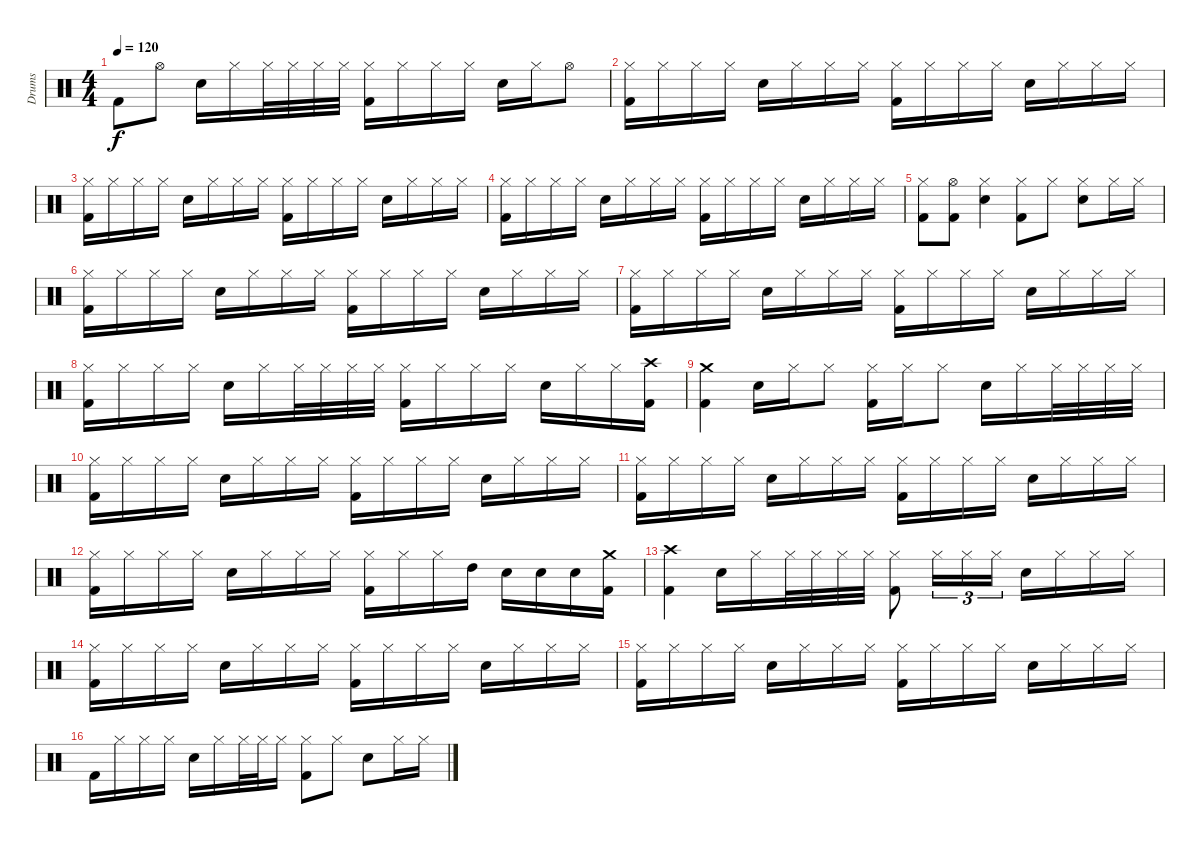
\track ("Drums" "Drums") {instrument percussion}
\staff {score}
\articulation defaults
\ts (4 4)
\tempo 120
\clef neutral
\ks c "Kick (hit) 2".8{dy f} "Hi-Hat (open)".8 "Electric Snare (hit)".16 "Hi-Hat (closed)".16 "Hi-Hat (closed)".32 "Hi-Hat (closed)".32 "Hi-Hat (closed)".32 "Hi-Hat (closed)".32
("Hi-Hat (closed)" "Kick (hit) 2").16 "Hi-Hat (closed)".16 "Hi-Hat (closed)".16 "Hi-Hat (closed)".16 "Electric Snare (hit)".16 "Hi-Hat (closed)".16 "Hi-Hat (open)".8 |
("Hi-Hat (closed)" "Kick (hit) 2").16 "Hi-Hat (closed)".16 "Hi-Hat (closed)".16 "Hi-Hat (closed)".16 "Electric Snare (hit)".16 "Hi-Hat (closed)".16 "Hi-Hat (closed)".16 "Hi-Hat (closed)".16 ("Hi-Hat (closed)" "Kick (hit) 2").16 "Hi-Hat (closed)".16 "Hi-Hat (closed)".16 "Hi-Hat (closed)".16 "Electric Snare (hit)".16 "Hi-Hat (closed)".16 "Hi-Hat (closed)".16 "Hi-Hat (closed)".16 |
("Hi-Hat (closed)" "Kick (hit) 2").16 "Hi-Hat (closed)".16 "Hi-Hat (closed)".16 "Hi-Hat (closed)".16 "Electric Snare (hit)".16 "Hi-Hat (closed)".16 "Hi-Hat (closed)".16 "Hi-Hat (closed)".16 ("Hi-Hat (closed)" "Kick (hit) 2").16 "Hi-Hat (closed)".16 "Hi-Hat (closed)".16 "Hi-Hat (closed)".16 "Electric Snare (hit)".16 "Hi-Hat (closed)".16 "Hi-Hat (closed)".16 "Hi-Hat (closed)".16 |
("Hi-Hat (closed)" "Kick (hit) 2").16 "Hi-Hat (closed)".16 "Hi-Hat (closed)".16 "Hi-Hat (closed)".16 "Electric Snare (hit)".16 "Hi-Hat (closed)".16 "Hi-Hat (closed)".16 "Hi-Hat (closed)".16 ("Hi-Hat (closed)" "Kick (hit) 2").16 "Hi-Hat (closed)".16 "Hi-Hat (closed)".16 "Hi-Hat (closed)".16 "Electric Snare (hit)".16 "Hi-Hat (closed)".16 "Hi-Hat (closed)".16 "Hi-Hat (closed)".16 |
("Hi-Hat (closed)" "Kick (hit) 2").8 ("Hi-Hat (open)" "Kick (hit) 2").8 ("Hi-Hat (closed)" "Electric Snare (hit)").4 ("Hi-Hat (closed)" "Kick (hit) 2").8 "Hi-Hat (closed)".8 ("Hi-Hat (closed)" "Electric Snare (hit)").8 "Hi-Hat (closed)".16 "Hi-Hat (closed)".16 |
("Hi-Hat (closed)" "Kick (hit) 2").16 "Hi-Hat (closed)".16 "Hi-Hat (closed)".16 "Hi-Hat (closed)".16 "Electric Snare (hit)".16 "Hi-Hat (closed)".16 "Hi-Hat (closed)".16 "Hi-Hat (closed)".16 ("Hi-Hat (closed)" "Kick (hit) 2").16 "Hi-Hat (closed)".16 "Hi-Hat (closed)".16 "Hi-Hat (closed)".16 "Electric Snare (hit)".16 "Hi-Hat (closed)".16 "Hi-Hat (closed)".16 "Hi-Hat (closed)".16 |
("Hi-Hat (closed)" "Kick (hit) 2").16 "Hi-Hat (closed)".16 "Hi-Hat (closed)".16 "Hi-Hat (closed)".16 "Electric Snare (hit)".16 "Hi-Hat (closed)".16 "Hi-Hat (closed)".16 "Hi-Hat (closed)".16 ("Hi-Hat (closed)" "Kick (hit) 2").16 "Hi-Hat (closed)".16 "Hi-Hat (closed)".16 "Hi-Hat (closed)".16 "Electric Snare (hit)".16 "Hi-Hat (closed)".16 "Hi-Hat (closed)".16 "Hi-Hat (closed)".16 |
("Hi-Hat (closed)" "Kick (hit) 2").16 "Hi-Hat (closed)".16 "Hi-Hat (closed)".16 "Hi-Hat (closed)".16 "Electric Snare (hit)".16 "Hi-Hat (closed)".16 "Hi-Hat (closed)".32 "Hi-Hat (closed)".32 "Hi-Hat (closed)".32 "Hi-Hat (closed)".32 ("Hi-Hat (closed)" "Kick (hit) 2").16 "Hi-Hat (closed)".16 "Hi-Hat (closed)".16 "Hi-Hat (closed)".16 "Electric Snare (hit)".16 "Hi-Hat (closed)".16 "Hi-Hat (closed)".16 ("Crash high (hit)" "Kick (hit) 2").16 |
("Crash medium (hit)" "Kick (hit) 2").4 "Electric Snare (hit)".16 "Hi-Hat (closed)".16 "Hi-Hat (closed)".8 ("Hi-Hat (closed)" "Kick (hit) 2").16 "Hi-Hat (closed)".16 "Hi-Hat (closed)".8 "Electric Snare (hit)".16 "Hi-Hat (closed)".16 "Hi-Hat (closed)".32 "Hi-Hat (closed)".32 "Hi-Hat (closed)".32 "Hi-Hat (closed)".32 |
("Hi-Hat (closed)" "Kick (hit) 2").16 "Hi-Hat (closed)".16 "Hi-Hat (closed)".16 "Hi-Hat (closed)".16 "Electric Snare (hit)".16 "Hi-Hat (closed)".16 "Hi-Hat (closed)".16 "Hi-Hat (closed)".16 ("Hi-Hat (closed)" "Kick (hit) 2").16 "Hi-Hat (closed)".16 "Hi-Hat (closed)".16 "Hi-Hat (closed)".16 "Electric Snare (hit)".16 "Hi-Hat (closed)".16 "Hi-Hat (closed)".16 "Hi-Hat (closed)".16 |
("Hi-Hat (closed)" "Kick (hit) 2").16 "Hi-Hat (closed)".16 "Hi-Hat (closed)".16 "Hi-Hat (closed)".16 "Electric Snare (hit)".16 "Hi-Hat (closed)".16 "Hi-Hat (closed)".16 "Hi-Hat (closed)".16 ("Hi-Hat (closed)" "Kick (hit) 2").16 "Hi-Hat (closed)".16 "Hi-Hat (closed)".16 "Hi-Hat (closed)".16 "Electric Snare (hit)".16 "Hi-Hat (closed)".16 "Hi-Hat (closed)".16 "Hi-Hat (closed)".16 |
("Hi-Hat (closed)" "Kick (hit) 2").16 "Hi-Hat (closed)".16 "Hi-Hat (closed)".16 "Hi-Hat (closed)".16 "Electric Snare (hit)".16 "Hi-Hat (closed)".16 "Hi-Hat (closed)".16 "Hi-Hat (closed)".16 ("Hi-Hat (closed)" "Kick (hit) 2").16 "Hi-Hat (closed)".16 "Hi-Hat (closed)".16 "High Tom (hit)".16 "Electric Snare (hit)".16 "Electric Snare (hit)".16 "Electric Snare (hit)".16 ("Crash medium (hit)" "Kick (hit) 2").16 |
("Crash high (hit)" "Kick (hit) 2").4 "Electric Snare (hit)".16 "Hi-Hat (closed)".16 "Hi-Hat (closed)".32 "Hi-Hat (closed)".32 "Hi-Hat (closed)".32 "Hi-Hat (closed)".32 ("Hi-Hat (closed)" "Kick (hit) 2").8 "Hi-Hat (closed)".16{tu (3 2)} "Hi-Hat (closed)".16{tu (3 2)} "Hi-Hat (closed)".16{tu (3 2)} "Electric Snare (hit)".16 "Hi-Hat (closed)".16 "Hi-Hat (closed)".16 "Hi-Hat (closed)".16 |
("Hi-Hat (closed)" "Kick (hit) 2").16 "Hi-Hat (closed)".16 "Hi-Hat (closed)".16 "Hi-Hat (closed)".16 "Electric Snare (hit)".16 "Hi-Hat (closed)".16 "Hi-Hat (closed)".16 "Hi-Hat (closed)".16 ("Hi-Hat (closed)" "Kick (hit) 2").16 "Hi-Hat (closed)".16 "Hi-Hat (closed)".16 "Hi-Hat (closed)".16 "Electric Snare (hit)".16 "Hi-Hat (closed)".16 "Hi-Hat (closed)".16 "Hi-Hat (closed)".16 |
("Hi-Hat (closed)" "Kick (hit) 2").16 "Hi-Hat (closed)".16 "Hi-Hat (closed)".16 "Hi-Hat (closed)".16 "Electric Snare (hit)".16 "Hi-Hat (closed)".16 "Hi-Hat (closed)".16 "Hi-Hat (closed)".16 ("Hi-Hat (closed)" "Kick (hit) 2").16 "Hi-Hat (closed)".16 "Hi-Hat (closed)".16 "Hi-Hat (closed)".16 "Electric Snare (hit)".16 "Hi-Hat (closed)".16 "Hi-Hat (closed)".16 "Hi-Hat (closed)".16 |
"Kick (hit) 2".16 "Hi-Hat (closed)".16 "Hi-Hat (closed)".16 "Hi-Hat (closed)".16 "Electric Snare (hit)".16 "Hi-Hat (closed)".16 "Hi-Hat (closed)".32 "Hi-Hat (closed)".32 "Hi-Hat (closed)".16 ("Hi-Hat (closed)" "Kick (hit) 2").8 "Hi-Hat (closed)".8 "Electric Snare (hit)".8 "Hi-Hat (closed)".16 "Hi-Hat (closed)".16
